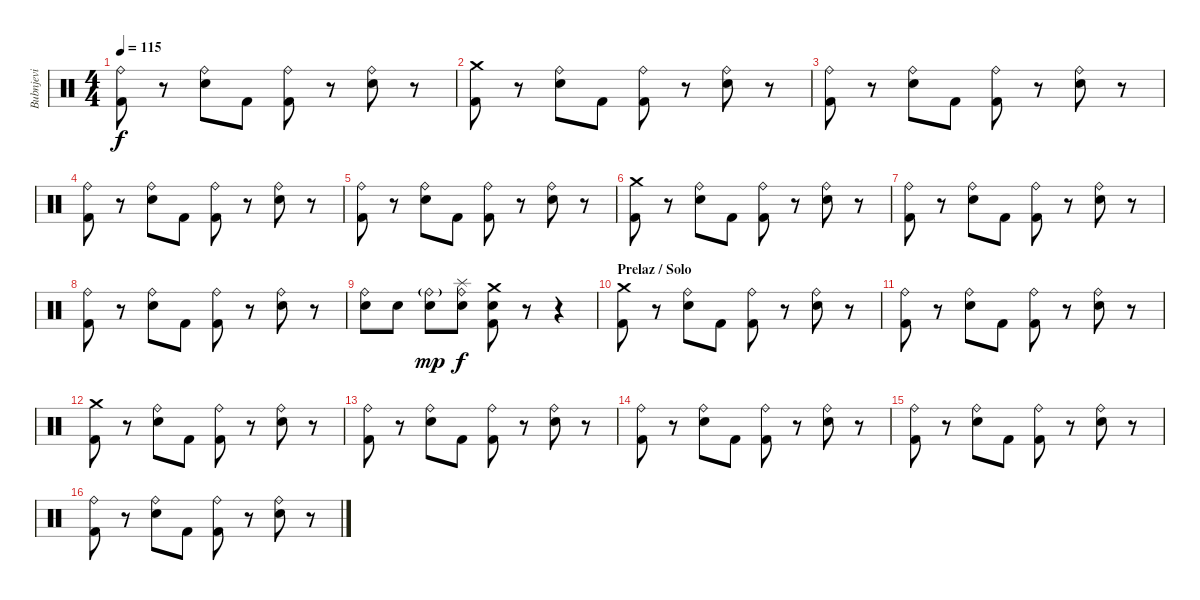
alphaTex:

\track ("Bubnjevi" "Bubnjevi") {instrument percussion}
\staff {score}
\articulation defaults
\ts (4 4)
\tempo 115
\clef neutral
\ks c
("Ride (bell)" "Kick (hit) 2").8{dy f} r.8 ("Ride (bell)" "Electric Snare (hit)").8 "Kick (hit) 2".8 ("Ride (bell)" "Kick (hit) 2").8 r.8 ("Ride (bell)" "Electric Snare (hit)").8 r.8 |
("Crash medium (hit)" "Kick (hit) 2").8 r.8 ("Ride (bell)" "Electric Snare (hit)").8 "Kick (hit) 2".8 ("Ride (bell)" "Kick (hit) 2").8 r.8 ("Ride (bell)" "Electric Snare (hit)").8 r.8 |
("Ride (bell)" "Kick (hit) 2").8 r.8 ("Ride (bell)" "Electric Snare (hit)").8 "Kick (hit) 2".8 ("Ride (bell)" "Kick (hit) 2").8 r.8 ("Ride (bell)" "Electric Snare (hit)").8 r.8 |
("Ride (bell)" "Kick (hit) 2").8 r.8 ("Ride (bell)" "Electric Snare (hit)").8 "Kick (hit) 2".8 ("Ride (bell)" "Kick (hit) 2").8 r.8 ("Ride (bell)" "Electric Snare (hit)").8 r.8 |
("Ride (bell)" "Kick (hit) 2").8 r.8 ("Ride (bell)" "Electric Snare (hit)").8 "Kick (hit) 2".8 ("Ride (bell)" "Kick (hit) 2").8 r.8 ("Ride (bell)" "Electric Snare (hit)").8 r.8 |
("Crash medium (hit)" "Kick (hit) 2").8 r.8 ("Ride (bell)" "Electric Snare (hit)").8 "Kick (hit) 2".8 ("Ride (bell)" "Kick (hit) 2").8 r.8 ("Ride (bell)" "Electric Snare (hit)").8 r.8 |
("Ride (bell)" "Kick (hit) 2").8 r.8 ("Ride (bell)" "Electric Snare (hit)").8 "Kick (hit) 2".8 ("Ride (bell)" "Kick (hit) 2").8 r.8 ("Ride (bell)" "Electric Snare (hit)").8 r.8 |
("Ride (bell)" "Kick (hit) 2").8 r.8 ("Ride (bell)" "Electric Snare (hit)").8 "Kick (hit) 2".8 ("Ride (bell)" "Kick (hit) 2").8 r.8 ("Ride (bell)" "Electric Snare (hit)").8 r.8 |
("Ride (bell)" "Electric Snare (hit)").8 "Electric Snare (hit)".8 ("Ride (bell)"{g} "Electric Snare (hit)").8{dy mp} ("Ride (bell)" "Electric Snare (hit)" "Splash (hit)").8{dy f} ("Crash medium (hit)" "Kick (hit) 2" "Electric Snare (hit)").8 r.8 r.4 |
\section ("" "Prelaz / Solo")
("Crash medium (hit)" "Kick (hit) 2").8 r.8 ("Ride (bell)" "Electric Snare (hit)").8 "Kick (hit) 2".8 ("Ride (bell)" "Kick (hit) 2").8 r.8 ("Ride (bell)" "Electric Snare (hit)").8 r.8 |
("Ride (bell)" "Kick (hit) 2").8 r.8 ("Ride (bell)" "Electric Snare (hit)").8 "Kick (hit) 2".8 ("Ride (bell)" "Kick (hit) 2").8 r.8 ("Ride (bell)" "Electric Snare (hit)").8 r.8 |
("Crash medium (hit)" "Kick (hit) 2").8 r.8 ("Ride (bell)" "Electric Snare (hit)").8 "Kick (hit) 2".8 ("Ride (bell)" "Kick (hit) 2").8 r.8 ("Ride (bell)" "Electric Snare (hit)").8 r.8 |
("Ride (bell)" "Kick (hit) 2").8 r.8 ("Ride (bell)" "Electric Snare (hit)").8 "Kick (hit) 2".8 ("Ride (bell)" "Kick (hit) 2").8 r.8 ("Ride (bell)" "Electric Snare (hit)").8 r.8 |
("Ride (bell)" "Kick (hit) 2").8 r.8 ("Ride (bell)" "Electric Snare (hit)").8 "Kick (hit) 2".8 ("Ride (bell)" "Kick (hit) 2").8 r.8 ("Ride (bell)" "Electric Snare (hit)").8 r.8 |
("Ride (bell)" "Kick (hit) 2").8 r.8 ("Ride (bell)" "Electric Snare (hit)").8 "Kick (hit) 2".8 ("Ride (bell)" "Kick (hit) 2").8 r.8 ("Ride (bell)" "Electric Snare (hit)").8 r.8 |
("Ride (bell)" "Kick (hit) 2").8 r.8 ("Ride (bell)" "Electric Snare (hit)").8 "Kick (hit) 2".8 ("Ride (bell)" "Kick (hit) 2").8 r.8 ("Ride (bell)" "Electric Snare (hit)").8 r.8
